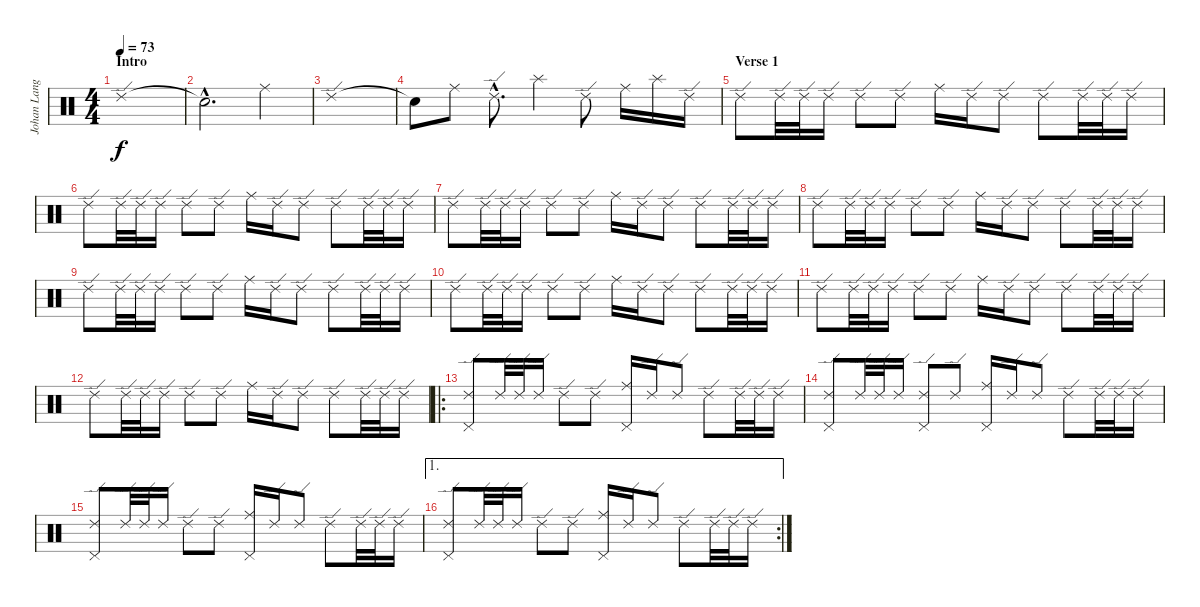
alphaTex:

\track ("Johan Langell" "Johan Lang") {instrument percussion}
\staff {score}
\articulation defaults
\ts (4 4)
\section ("" "Intro")
\tempo 73
\clef neutral
\ks c "Ride (edge) 2".1{dy f}
|
"Snare (hit)"{hac t}.2{d} "Ride (middle)".4 |
"Ride (edge) 2".1 |
"Snare (hit)"{t}.8 "Ride (middle)".8 "Ride (edge) 2"{hac}.8{d} "Splash (hit)".4 "Ride (edge) 2".8 "Ride (middle)".16 "Splash (hit)".16 "Ride (edge) 2".16 |
\section ("" "Verse 1")
"Ride (edge) 2".8 "Ride (edge) 2".32 "Ride (edge) 2".32 "Ride (edge) 2".16 "Ride (edge) 2".8 "Ride (edge) 2".8 "Ride (middle)".16 "Ride (edge) 2".16 "Ride (edge) 2".8 "Ride (edge) 2".8 "Ride (edge) 2".32 "Ride (edge) 2".32 "Ride (edge) 2".16 |
"Ride (edge) 2".8 "Ride (edge) 2".32 "Ride (edge) 2".32 "Ride (edge) 2".16 "Ride (edge) 2".8 "Ride (edge) 2".8 "Ride (middle)".16 "Ride (edge) 2".16 "Ride (edge) 2".8 "Ride (edge) 2".8 "Ride (edge) 2".32 "Ride (edge) 2".32 "Ride (edge) 2".16 |
"Ride (edge) 2".8 "Ride (edge) 2".32 "Ride (edge) 2".32 "Ride (edge) 2".16 "Ride (edge) 2".8 "Ride (edge) 2".8 "Ride (middle)".16 "Ride (edge) 2".16 "Ride (edge) 2".8 "Ride (edge) 2".8 "Ride (edge) 2".32 "Ride (edge) 2".32 "Ride (edge) 2".16 |
"Ride (edge) 2".8 "Ride (edge) 2".32 "Ride (edge) 2".32 "Ride (edge) 2".16 "Ride (edge) 2".8 "Ride (edge) 2".8 "Ride (middle)".16 "Ride (edge) 2".16 "Ride (edge) 2".8 "Ride (edge) 2".8 "Ride (edge) 2".32 "Ride (edge) 2".32 "Ride (edge) 2".16 |
"Ride (edge) 2".8 "Ride (edge) 2".32 "Ride (edge) 2".32 "Ride (edge) 2".16 "Ride (edge) 2".8 "Ride (edge) 2".8 "Ride (middle)".16 "Ride (edge) 2".16 "Ride (edge) 2".8 "Ride (edge) 2".8 "Ride (edge) 2".32 "Ride (edge) 2".32 "Ride (edge) 2".16 |
"Ride (edge) 2".8 "Ride (edge) 2".32 "Ride (edge) 2".32 "Ride (edge) 2".16 "Ride (edge) 2".8 "Ride (edge) 2".8 "Ride (middle)".16 "Ride (edge) 2".16 "Ride (edge) 2".8 "Ride (edge) 2".8 "Ride (edge) 2".32 "Ride (edge) 2".32 "Ride (edge) 2".16 |
"Ride (edge) 2".8 "Ride (edge) 2".32 "Ride (edge) 2".32 "Ride (edge) 2".16 "Ride (edge) 2".8 "Ride (edge) 2".8 "Ride (middle)".16 "Ride (edge) 2".16 "Ride (edge) 2".8 "Ride (edge) 2".8 "Ride (edge) 2".32 "Ride (edge) 2".32 "Ride (edge) 2".16 |
"Ride (edge) 2".8 "Ride (edge) 2".32 "Ride (edge) 2".32 "Ride (edge) 2".16 "Ride (edge) 2".8 "Ride (edge) 2".8 "Ride (middle)".16 "Ride (edge) 2".16 "Ride (edge) 2".8 "Ride (edge) 2".8 "Ride (edge) 2".32 "Ride (edge) 2".32 "Ride (edge) 2".16 |
\ro
("Ride (edge) 2" "Pedal Hi-Hat (hit)").8 "Ride (edge) 2".32 "Ride (edge) 2".32 "Ride (edge) 2".16 "Ride (edge) 2".8 "Ride (edge) 2".8 ("Ride (middle)" "Pedal Hi-Hat (hit)").16 "Ride (edge) 2".16 "Ride (edge) 2".8 "Ride (edge) 2".8 "Ride (edge) 2".32 "Ride (edge) 2".32 "Ride (edge) 2".16 |
("Ride (edge) 2" "Pedal Hi-Hat (hit)").8 "Ride (edge) 2".32 "Ride (edge) 2".32 "Ride (edge) 2".16 ("Ride (edge) 2" "Pedal Hi-Hat (hit)").8 "Ride (edge) 2".8 ("Ride (middle)" "Pedal Hi-Hat (hit)").16 "Ride (edge) 2".16 "Ride (edge) 2".8 "Ride (edge) 2".8 "Ride (edge) 2".32 "Ride (edge) 2".32 "Ride (edge) 2".16 |
("Ride (edge) 2" "Pedal Hi-Hat (hit)").8 "Ride (edge) 2".32 "Ride (edge) 2".32 "Ride (edge) 2".16 "Ride (edge) 2".8 "Ride (edge) 2".8 ("Ride (middle)" "Pedal Hi-Hat (hit)").16 "Ride (edge) 2".16 "Ride (edge) 2".8 "Ride (edge) 2".8 "Ride (edge) 2".32 "Ride (edge) 2".32 "Ride (edge) 2".16 |
\ae 1
\rc 2
("Ride (edge) 2" "Pedal Hi-Hat (hit)").8 "Ride (edge) 2".32 "Ride (edge) 2".32 "Ride (edge) 2".16 "Ride (edge) 2".8 "Ride (edge) 2".8 ("Ride (middle)" "Pedal Hi-Hat (hit)").16 "Ride (edge) 2".16 "Ride (edge) 2".8 "Ride (edge) 2".8 "Ride (edge) 2".32 "Ride (edge) 2".32 "Ride (edge) 2".16
